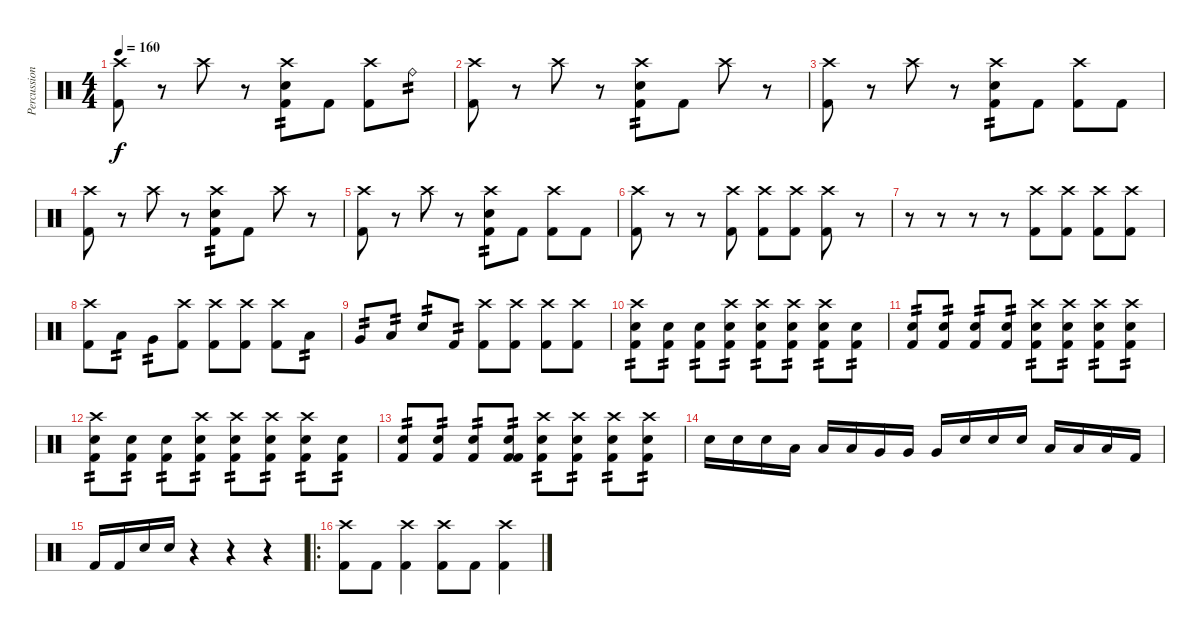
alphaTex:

\track ("Percussion" "Percussion") {instrument percussion}
\staff {score}
\articulation defaults
\ts (4 4)
\tempo 160
\clef neutral
\ks c
("Crash high (hit)" "Kick (hit) 2").8{dy f} r.8 "Crash high (hit)".8 r.8 ("Crash high (hit)" "Snare (hit) 2" "Kick (hit) 2").8{tp 2} "Kick (hit) 2".8 ("Crash high (hit)" "Kick (hit) 2").8 "Ride (bell)".8{tp 2} |
("Crash high (hit)" "Kick (hit) 2").8 r.8 "Crash high (hit)".8 r.8 ("Crash high (hit)" "Snare (hit) 2" "Kick (hit) 2").8{tp 2} "Kick (hit) 2".8 "Crash high (hit)".8 r.8 |
("Crash high (hit)" "Kick (hit) 2").8 r.8 "Crash high (hit)".8 r.8 ("Crash high (hit)" "Snare (hit) 2" "Kick (hit) 2").8{tp 2} "Kick (hit) 2".8 ("Crash high (hit)" "Kick (hit) 2").8 "Kick (hit) 2".8 |
("Crash high (hit)" "Kick (hit) 2").8 r.8 "Crash high (hit)".8 r.8 ("Crash high (hit)" "Snare (hit) 2" "Kick (hit) 2").8{tp 2} "Kick (hit) 2".8 "Crash high (hit)".8 r.8 |
("Crash high (hit)" "Kick (hit) 2").8 r.8 "Crash high (hit)".8 r.8 ("Crash high (hit)" "Snare (hit) 2" "Kick (hit) 2").8{tp 2} "Kick (hit) 2".8 ("Crash high (hit)" "Kick (hit) 2").8 "Kick (hit) 2".8 |
("Kick (hit) 2" "Crash high (hit)").8 r.8 r.8 ("Kick (hit) 2" "Crash high (hit)").8 ("Kick (hit) 2" "Crash high (hit)").8 ("Kick (hit) 2" "Crash high (hit)").8 ("Kick (hit) 2" "Crash high (hit)").8 r.8 |
r.8 r.8 r.8 r.8 ("Kick (hit) 2" "Crash high (hit)").8 ("Kick (hit) 2" "Crash high (hit)").8 ("Kick (hit) 2" "Crash high (hit)").8 ("Kick (hit) 2" "Crash high (hit)").8 |
("Kick (hit) 2" "Crash high (hit)").8 "Low Tom (hit)".8{tp 2} "Very Low Tom (hit)".8{tp 2} ("Kick (hit) 2" "Crash high (hit)").8 ("Kick (hit) 2" "Crash high (hit)").8 ("Kick (hit) 2" "Crash high (hit)").8 ("Kick (hit) 2" "Crash high (hit)").8 "Low Tom (hit)".8{tp 2} |
"Very Low Tom (hit)".8{tp 2} "Low Floor Tom (hit)".8{tp 2} "Snare (hit) 2".8{tp 2} "Kick (hit) 2".8{tp 2} ("Kick (hit) 2" "Crash high (hit)").8 ("Kick (hit) 2" "Crash high (hit)").8 ("Kick (hit) 2" "Crash high (hit)").8 ("Kick (hit) 2" "Crash high (hit)").8 |
("Electric Snare (hit)" "Kick (hit) 2" "Crash high (hit)").8{tp 2} ("Electric Snare (hit)" "Kick (hit) 2").8{tp 2} ("Electric Snare (hit)" "Kick (hit) 2").8{tp 2} ("Electric Snare (hit)" "Kick (hit) 2" "Crash high (hit)").8{tp 2} ("Electric Snare (hit)" "Kick (hit) 2" "Crash high (hit)").8{tp 2} ("Electric Snare (hit)" "Kick (hit) 2" "Crash high (hit)").8{tp 2} ("Electric Snare (hit)" "Kick (hit) 2" "Crash high (hit)").8{tp 2} ("Electric Snare (hit)" "Kick (hit) 2").8{tp 2} |
("Electric Snare (hit)" "Kick (hit) 2").8{tp 2} ("Electric Snare (hit)" "Kick (hit) 2").8{tp 2} ("Electric Snare (hit)" "Kick (hit) 2").8{tp 2} ("Electric Snare (hit)" "Kick (hit) 2").8{tp 2} ("Electric Snare (hit)" "Kick (hit) 2" "Crash high (hit)").8{tp 2} ("Electric Snare (hit)" "Kick (hit) 2" "Crash high (hit)").8{tp 2} ("Electric Snare (hit)" "Kick (hit) 2" "Crash high (hit)").8{tp 2} ("Electric Snare (hit)" "Kick (hit) 2" "Crash high (hit)").8{tp 2} |
("Electric Snare (hit)" "Kick (hit) 2" "Crash high (hit)").8{tp 2} ("Electric Snare (hit)" "Kick (hit) 2").8{tp 2} ("Electric Snare (hit)" "Kick (hit) 2").8{tp 2} ("Electric Snare (hit)" "Kick (hit) 2" "Crash high (hit)").8{tp 2} ("Electric Snare (hit)" "Kick (hit) 2" "Crash high (hit)").8{tp 2} ("Electric Snare (hit)" "Kick (hit) 2" "Crash high (hit)").8{tp 2} ("Electric Snare (hit)" "Kick (hit) 2" "Crash high (hit)").8{tp 2} ("Electric Snare (hit)" "Kick (hit) 2").8{tp 2} |
("Electric Snare (hit)" "Kick (hit) 2").8{tp 2} ("Electric Snare (hit)" "Kick (hit) 2").8{tp 2} ("Electric Snare (hit)" "Kick (hit) 2").8{tp 2} ("Electric Snare (hit)" "Kick (hit) 2" "Kick (hit) 2").8{tp 2} ("Electric Snare (hit)" "Kick (hit) 2" "Crash high (hit)").8{tp 2} ("Electric Snare (hit)" "Kick (hit) 2" "Crash high (hit)").8{tp 2} ("Electric Snare (hit)" "Kick (hit) 2" "Crash high (hit)").8{tp 2} ("Electric Snare (hit)" "Kick (hit) 2" "Crash high (hit)").8{tp 2} |
"Snare (hit) 2".16 "Snare (hit) 2".16 "Snare (hit) 2".16 "Low Tom (hit)".16 "Low Tom (hit)".16 "Low Tom (hit)".16 "Very Low Tom (hit)".16 "Very Low Tom (hit)".16 "Very Low Tom (hit)".16 "Snare (hit) 2".16 "Snare (hit) 2".16 "Snare (hit) 2".16 "Low Floor Tom (hit)".16 "Low Floor Tom (hit)".16 "Low Floor Tom (hit)".16 "Kick (hit) 2".16 |
"Kick (hit) 2".16 "Kick (hit) 2".16 "Snare (hit) 2".16 "Snare (hit) 2".16 r.4 r.4 r.4 |
\ro
("Crash high (hit)" "Kick (hit) 2").8 "Kick (hit) 2".8 ("Crash high (hit)" "Kick (hit) 2").4 ("Crash high (hit)" "Kick (hit) 2").8 "Kick (hit) 2".8 ("Crash high (hit)" "Kick (hit) 2").4
